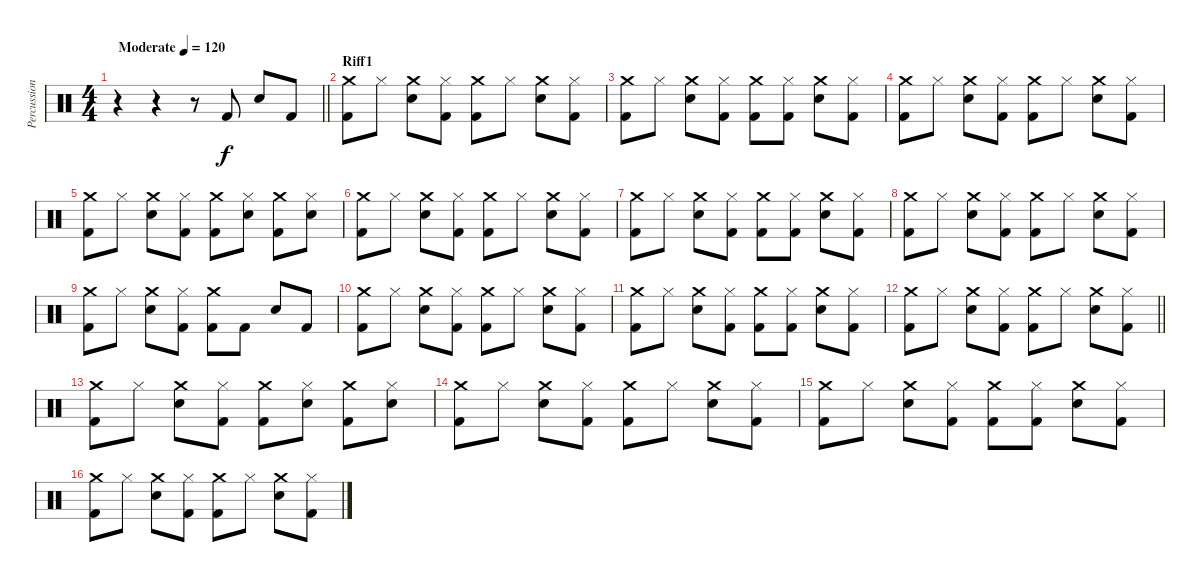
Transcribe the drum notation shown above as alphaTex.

\track ("Percussion" "Percussion") {instrument percussion}
\staff {score}
\articulation defaults
\ts (4 4)
\tempo (120 "Moderate")
\clef neutral
\barLineRight lightlight
\ks c
r.4{dy f} r.4 r.8 "Kick (hit) 2".8 "Electric Snare (hit)".8 "Kick (hit) 2".8 |
\section ("" "Riff1")
("Crash medium (hit)" "Kick (hit) 2").8 "Hi-Hat (closed)".8 ("Crash medium (hit)" "Electric Snare (hit)").8 ("Hi-Hat (closed)" "Kick (hit) 2").8 ("Crash medium (hit)" "Kick (hit) 2").8 "Hi-Hat (closed)".8 ("Crash medium (hit)" "Electric Snare (hit)").8 ("Hi-Hat (closed)" "Kick (hit) 2").8 |
("Crash medium (hit)" "Kick (hit) 2").8 "Hi-Hat (closed)".8 ("Crash medium (hit)" "Electric Snare (hit)").8 ("Hi-Hat (closed)" "Kick (hit) 2").8 ("Crash medium (hit)" "Kick (hit) 2").8 ("Hi-Hat (closed)" "Kick (hit) 2").8 ("Crash medium (hit)" "Electric Snare (hit)").8 ("Hi-Hat (closed)" "Kick (hit) 2").8 |
("Crash medium (hit)" "Kick (hit) 2").8 "Hi-Hat (closed)".8 ("Crash medium (hit)" "Electric Snare (hit)").8 ("Hi-Hat (closed)" "Kick (hit) 2").8 ("Crash medium (hit)" "Kick (hit) 2").8 "Hi-Hat (closed)".8 ("Crash medium (hit)" "Electric Snare (hit)").8 ("Hi-Hat (closed)" "Kick (hit) 2").8 |
("Crash medium (hit)" "Kick (hit) 2").8 "Hi-Hat (closed)".8 ("Crash medium (hit)" "Electric Snare (hit)").8 ("Hi-Hat (closed)" "Kick (hit) 2").8 ("Crash medium (hit)" "Kick (hit) 2").8 ("Hi-Hat (closed)" "Electric Snare (hit)").8 ("Crash medium (hit)" "Kick (hit) 2").8 ("Hi-Hat (closed)" "Electric Snare (hit)").8 |
("Crash medium (hit)" "Kick (hit) 2").8 "Hi-Hat (closed)".8 ("Crash medium (hit)" "Electric Snare (hit)").8 ("Hi-Hat (closed)" "Kick (hit) 2").8 ("Crash medium (hit)" "Kick (hit) 2").8 "Hi-Hat (closed)".8 ("Crash medium (hit)" "Electric Snare (hit)").8 ("Hi-Hat (closed)" "Kick (hit) 2").8 |
("Crash medium (hit)" "Kick (hit) 2").8 "Hi-Hat (closed)".8 ("Crash medium (hit)" "Electric Snare (hit)").8 ("Hi-Hat (closed)" "Kick (hit) 2").8 ("Crash medium (hit)" "Kick (hit) 2").8 ("Hi-Hat (closed)" "Kick (hit) 2").8 ("Crash medium (hit)" "Electric Snare (hit)").8 ("Hi-Hat (closed)" "Kick (hit) 2").8 |
("Crash medium (hit)" "Kick (hit) 2").8 "Hi-Hat (closed)".8 ("Crash medium (hit)" "Electric Snare (hit)").8 ("Hi-Hat (closed)" "Kick (hit) 2").8 ("Crash medium (hit)" "Kick (hit) 2").8 "Hi-Hat (closed)".8 ("Crash medium (hit)" "Electric Snare (hit)").8 ("Hi-Hat (closed)" "Kick (hit) 2").8 |
("Crash medium (hit)" "Kick (hit) 2").8 "Hi-Hat (closed)".8 ("Crash medium (hit)" "Electric Snare (hit)").8 ("Hi-Hat (closed)" "Kick (hit) 2").8 ("Crash medium (hit)" "Kick (hit) 2").8 "Kick (hit) 2".8 "Electric Snare (hit)".8 "Kick (hit) 2".8 |
("Crash medium (hit)" "Kick (hit) 2").8 "Hi-Hat (closed)".8 ("Crash medium (hit)" "Electric Snare (hit)").8 ("Hi-Hat (closed)" "Kick (hit) 2").8 ("Crash medium (hit)" "Kick (hit) 2").8 "Hi-Hat (closed)".8 ("Crash medium (hit)" "Electric Snare (hit)").8 ("Hi-Hat (closed)" "Kick (hit) 2").8 |
("Crash medium (hit)" "Kick (hit) 2").8 "Hi-Hat (closed)".8 ("Crash medium (hit)" "Electric Snare (hit)").8 ("Hi-Hat (closed)" "Kick (hit) 2").8 ("Crash medium (hit)" "Kick (hit) 2").8 ("Hi-Hat (closed)" "Kick (hit) 2").8 ("Crash medium (hit)" "Electric Snare (hit)").8 ("Hi-Hat (closed)" "Kick (hit) 2").8 |
\barLineRight lightlight
("Crash medium (hit)" "Kick (hit) 2").8 "Hi-Hat (closed)".8 ("Crash medium (hit)" "Electric Snare (hit)").8 ("Hi-Hat (closed)" "Kick (hit) 2").8 ("Crash medium (hit)" "Kick (hit) 2").8 "Hi-Hat (closed)".8 ("Crash medium (hit)" "Electric Snare (hit)").8 ("Hi-Hat (closed)" "Kick (hit) 2").8 |
\section ("" "")
("Crash medium (hit)" "Kick (hit) 2").8 "Hi-Hat (closed)".8 ("Crash medium (hit)" "Electric Snare (hit)").8 ("Hi-Hat (closed)" "Kick (hit) 2").8 ("Crash medium (hit)" "Kick (hit) 2").8 ("Hi-Hat (closed)" "Electric Snare (hit)").8 ("Crash medium (hit)" "Kick (hit) 2").8 ("Hi-Hat (closed)" "Electric Snare (hit)").8 |
("Crash medium (hit)" "Kick (hit) 2").8 "Hi-Hat (closed)".8 ("Crash medium (hit)" "Electric Snare (hit)").8 ("Hi-Hat (closed)" "Kick (hit) 2").8 ("Crash medium (hit)" "Kick (hit) 2").8 "Hi-Hat (closed)".8 ("Crash medium (hit)" "Electric Snare (hit)").8 ("Hi-Hat (closed)" "Kick (hit) 2").8 |
("Crash medium (hit)" "Kick (hit) 2").8 "Hi-Hat (closed)".8 ("Crash medium (hit)" "Electric Snare (hit)").8 ("Hi-Hat (closed)" "Kick (hit) 2").8 ("Crash medium (hit)" "Kick (hit) 2").8 ("Hi-Hat (closed)" "Kick (hit) 2").8 ("Crash medium (hit)" "Electric Snare (hit)").8 ("Hi-Hat (closed)" "Kick (hit) 2").8 |
("Crash medium (hit)" "Kick (hit) 2").8 "Hi-Hat (closed)".8 ("Crash medium (hit)" "Electric Snare (hit)").8 ("Hi-Hat (closed)" "Kick (hit) 2").8 ("Crash medium (hit)" "Kick (hit) 2").8 "Hi-Hat (closed)".8 ("Crash medium (hit)" "Electric Snare (hit)").8 ("Hi-Hat (closed)" "Kick (hit) 2").8
